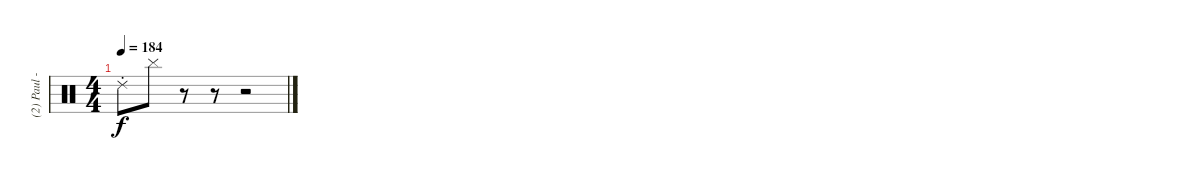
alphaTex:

\track ("(2) Paul - DJ" "(2) Paul -") {instrument percussion}
\staff {score}
\articulation defaults
\ts (4 4)
\tempo 184
\clef neutral
\ks c "Ride (choke) 2".8{dy f} "Cymbal (hit)".8
r.8 r.8 r.2
